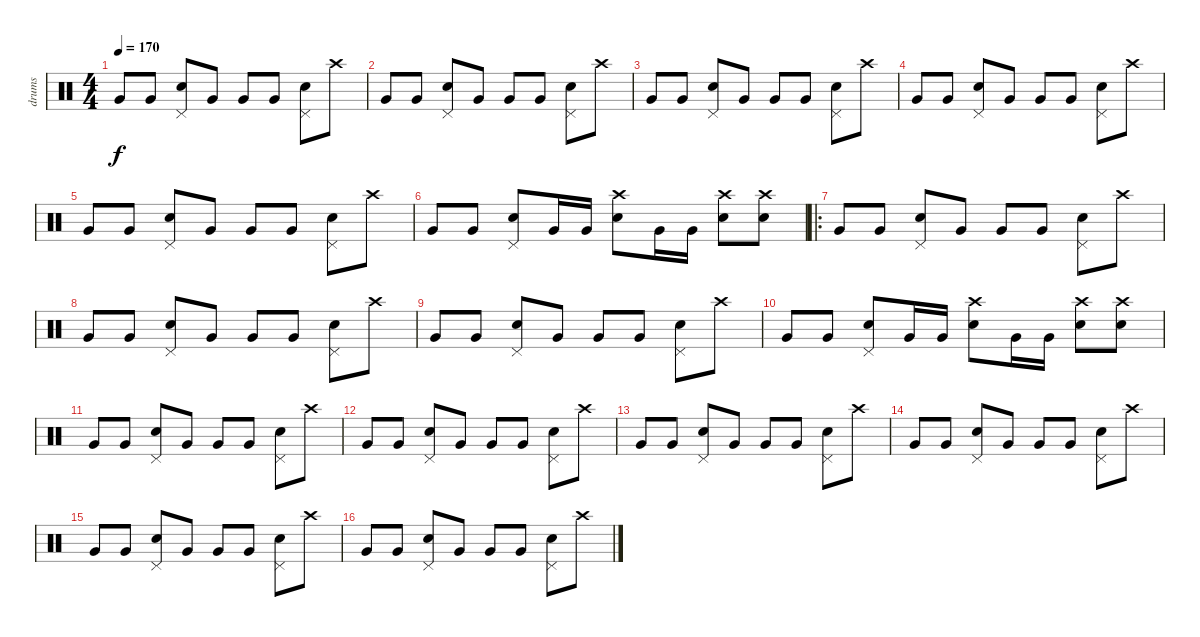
\track ("drums" "drums") {instrument percussion}
\staff {score}
\articulation defaults
\ts (4 4)
\tempo 170
\clef neutral
\ks c "Very Low Tom (hit)".8{dy f} "Very Low Tom (hit)".8
("Snare (hit) 2" "Pedal Hi-Hat (hit)").8 "Very Low Tom (hit)".8 "Very Low Tom (hit)".8 "Very Low Tom (hit)".8 ("Snare (hit) 2" "Pedal Hi-Hat (hit)").8 "Crash high (hit)".8 |
"Very Low Tom (hit)".8 "Very Low Tom (hit)".8 ("Snare (hit) 2" "Pedal Hi-Hat (hit)").8 "Very Low Tom (hit)".8 "Very Low Tom (hit)".8 "Very Low Tom (hit)".8 ("Snare (hit) 2" "Pedal Hi-Hat (hit)").8 "Crash high (hit)".8 |
"Very Low Tom (hit)".8 "Very Low Tom (hit)".8 ("Snare (hit) 2" "Pedal Hi-Hat (hit)").8 "Very Low Tom (hit)".8 "Very Low Tom (hit)".8 "Very Low Tom (hit)".8 ("Snare (hit) 2" "Pedal Hi-Hat (hit)").8 "Crash high (hit)".8 |
"Very Low Tom (hit)".8 "Very Low Tom (hit)".8 ("Snare (hit) 2" "Pedal Hi-Hat (hit)").8 "Very Low Tom (hit)".8 "Very Low Tom (hit)".8 "Very Low Tom (hit)".8 ("Snare (hit) 2" "Pedal Hi-Hat (hit)").8 "Crash high (hit)".8 |
"Very Low Tom (hit)".8 "Very Low Tom (hit)".8 ("Snare (hit) 2" "Pedal Hi-Hat (hit)").8 "Very Low Tom (hit)".8 "Very Low Tom (hit)".8 "Very Low Tom (hit)".8 ("Snare (hit) 2" "Pedal Hi-Hat (hit)").8 "Crash high (hit)".8 |
"Very Low Tom (hit)".8 "Very Low Tom (hit)".8 ("Snare (hit) 2" "Pedal Hi-Hat (hit)").8 "Very Low Tom (hit)".16 "Very Low Tom (hit)".16 ("Snare (hit) 2" "Crash high (hit)").8 "Very Low Tom (hit)".16 "Very Low Tom (hit)".16 ("Snare (hit) 2" "Crash high (hit)").8 ("Snare (hit) 2" "Crash high (hit)").8 |
\ro "Very Low Tom (hit)".8 "Very Low Tom (hit)".8
("Snare (hit) 2" "Pedal Hi-Hat (hit)").8 "Very Low Tom (hit)".8 "Very Low Tom (hit)".8 "Very Low Tom (hit)".8 ("Snare (hit) 2" "Pedal Hi-Hat (hit)").8 "Crash high (hit)".8 |
"Very Low Tom (hit)".8 "Very Low Tom (hit)".8 ("Snare (hit) 2" "Pedal Hi-Hat (hit)").8 "Very Low Tom (hit)".8 "Very Low Tom (hit)".8 "Very Low Tom (hit)".8 ("Snare (hit) 2" "Pedal Hi-Hat (hit)").8 "Crash high (hit)".8 |
"Very Low Tom (hit)".8 "Very Low Tom (hit)".8 ("Snare (hit) 2" "Pedal Hi-Hat (hit)").8 "Very Low Tom (hit)".8 "Very Low Tom (hit)".8 "Very Low Tom (hit)".8 ("Snare (hit) 2" "Pedal Hi-Hat (hit)").8 "Crash high (hit)".8 |
"Very Low Tom (hit)".8 "Very Low Tom (hit)".8 ("Snare (hit) 2" "Pedal Hi-Hat (hit)").8 "Very Low Tom (hit)".16 "Very Low Tom (hit)".16 ("Snare (hit) 2" "Crash high (hit)").8 "Very Low Tom (hit)".16 "Very Low Tom (hit)".16 ("Snare (hit) 2" "Crash high (hit)").8 ("Snare (hit) 2" "Crash high (hit)").8 |
"Very Low Tom (hit)".8 "Very Low Tom (hit)".8 ("Snare (hit) 2" "Pedal Hi-Hat (hit)").8 "Very Low Tom (hit)".8 "Very Low Tom (hit)".8 "Very Low Tom (hit)".8 ("Snare (hit) 2" "Pedal Hi-Hat (hit)").8 "Crash high (hit)".8 |
"Very Low Tom (hit)".8 "Very Low Tom (hit)".8 ("Snare (hit) 2" "Pedal Hi-Hat (hit)").8 "Very Low Tom (hit)".8 "Very Low Tom (hit)".8 "Very Low Tom (hit)".8 ("Snare (hit) 2" "Pedal Hi-Hat (hit)").8 "Crash high (hit)".8 |
"Very Low Tom (hit)".8 "Very Low Tom (hit)".8 ("Snare (hit) 2" "Pedal Hi-Hat (hit)").8 "Very Low Tom (hit)".8 "Very Low Tom (hit)".8 "Very Low Tom (hit)".8 ("Snare (hit) 2" "Pedal Hi-Hat (hit)").8 "Crash high (hit)".8 |
"Very Low Tom (hit)".8 "Very Low Tom (hit)".8 ("Snare (hit) 2" "Pedal Hi-Hat (hit)").8 "Very Low Tom (hit)".8 "Very Low Tom (hit)".8 "Very Low Tom (hit)".8 ("Snare (hit) 2" "Pedal Hi-Hat (hit)").8 "Crash high (hit)".8 |
"Very Low Tom (hit)".8 "Very Low Tom (hit)".8 ("Snare (hit) 2" "Pedal Hi-Hat (hit)").8 "Very Low Tom (hit)".8 "Very Low Tom (hit)".8 "Very Low Tom (hit)".8 ("Snare (hit) 2" "Pedal Hi-Hat (hit)").8 "Crash high (hit)".8 |
"Very Low Tom (hit)".8 "Very Low Tom (hit)".8 ("Snare (hit) 2" "Pedal Hi-Hat (hit)").8 "Very Low Tom (hit)".8 "Very Low Tom (hit)".8 "Very Low Tom (hit)".8 ("Snare (hit) 2" "Pedal Hi-Hat (hit)").8 "Crash high (hit)".8
